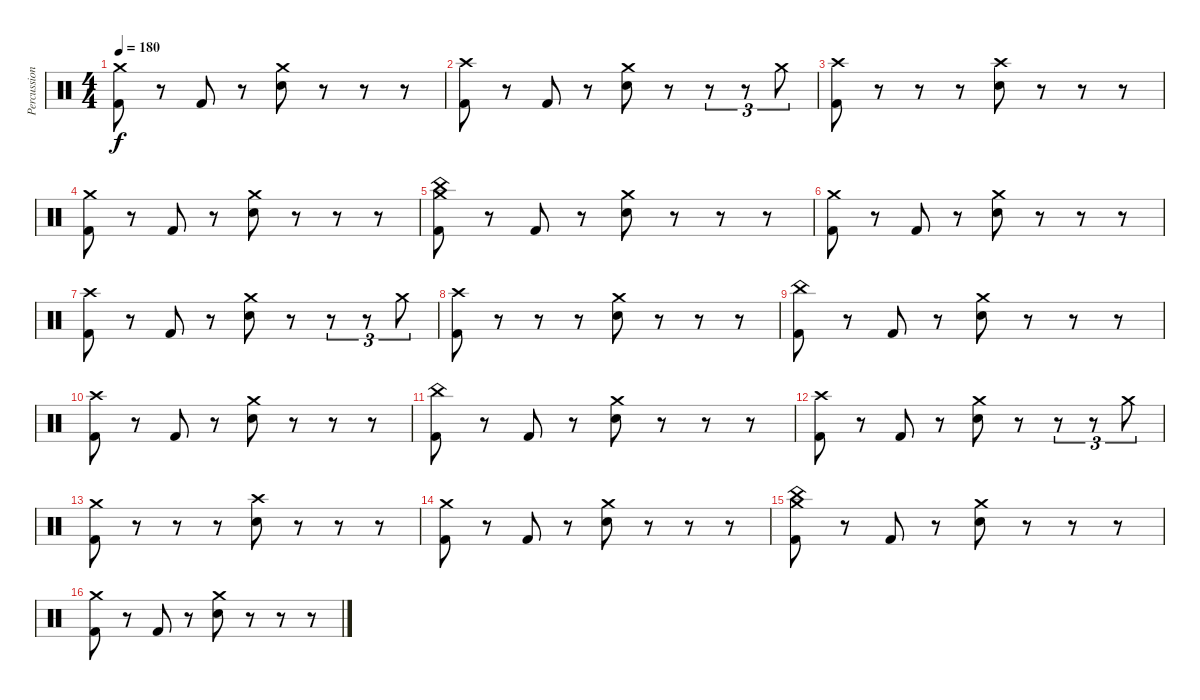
\track ("Percussion" "Percussion") {instrument percussion}
\staff {score}
\articulation defaults
\ts (4 4)
\tempo 180
\clef neutral
\ks c
("Crash medium (hit)" "Kick (hit) 2").8{dy f} r.8 "Kick (hit) 2".8 r.8 ("Crash medium (hit)" "Snare (hit) 2").8 r.8 r.8 r.8 |
("Crash high (hit)" "Kick (hit) 2").8 r.8 "Kick (hit) 2".8 r.8 ("Crash medium (hit)" "Snare (hit) 2").8 r.8 r.8{tu (3 2)} r.8{tu (3 2)} "Crash medium (hit)".8{tu (3 2)} |
("Crash high (hit)" "Kick (hit) 2").8 r.8 r.8 r.8 ("Crash high (hit)" "Snare (hit) 2").8 r.8 r.8 r.8 |
("Crash medium (hit)" "Kick (hit) 2").8 r.8 "Kick (hit) 2".8 r.8 ("Crash medium (hit)" "Snare (hit) 2").8 r.8 r.8 r.8 |
("Crash medium (hit)" "China (hit)" "Kick (hit) 2").8 r.8 "Kick (hit) 2".8 r.8 ("Crash medium (hit)" "Snare (hit) 2").8 r.8 r.8 r.8 |
("Crash medium (hit)" "Kick (hit) 2").8 r.8 "Kick (hit) 2".8 r.8 ("Crash medium (hit)" "Snare (hit) 2").8 r.8 r.8 r.8 |
("Crash high (hit)" "Kick (hit) 2").8 r.8 "Kick (hit) 2".8 r.8 ("Crash medium (hit)" "Snare (hit) 2").8 r.8 r.8{tu (3 2)} r.8{tu (3 2)} "Crash medium (hit)".8{tu (3 2)} |
("Crash high (hit)" "Kick (hit) 2").8 r.8 r.8 r.8 ("Crash medium (hit)" "Snare (hit) 2").8 r.8 r.8 r.8 |
("China (hit)" "Kick (hit) 2").8 r.8 "Kick (hit) 2".8 r.8 ("Crash medium (hit)" "Snare (hit) 2").8 r.8 r.8 r.8 |
("Crash high (hit)" "Kick (hit) 2").8 r.8 "Kick (hit) 2".8 r.8 ("Crash medium (hit)" "Snare (hit) 2").8 r.8 r.8 r.8 |
("China (hit)" "Kick (hit) 2").8 r.8 "Kick (hit) 2".8 r.8 ("Crash medium (hit)" "Snare (hit) 2").8 r.8 r.8 r.8 |
("Crash high (hit)" "Kick (hit) 2").8 r.8 "Kick (hit) 2".8 r.8 ("Crash medium (hit)" "Snare (hit) 2").8 r.8 r.8{tu (3 2)} r.8{tu (3 2)} "Crash medium (hit)".8{tu (3 2)} |
("Crash medium (hit)" "Kick (hit) 2").8 r.8 r.8 r.8 ("Crash high (hit)" "Snare (hit) 2").8 r.8 r.8 r.8 |
("Crash medium (hit)" "Kick (hit) 2").8 r.8 "Kick (hit) 2".8 r.8 ("Crash medium (hit)" "Snare (hit) 2").8 r.8 r.8 r.8 |
("Crash medium (hit)" "China (hit)" "Kick (hit) 2").8 r.8 "Kick (hit) 2".8 r.8 ("Crash medium (hit)" "Snare (hit) 2").8 r.8 r.8 r.8 |
("Crash medium (hit)" "Kick (hit) 2").8 r.8 "Kick (hit) 2".8 r.8 ("Crash medium (hit)" "Snare (hit) 2").8 r.8 r.8 r.8
